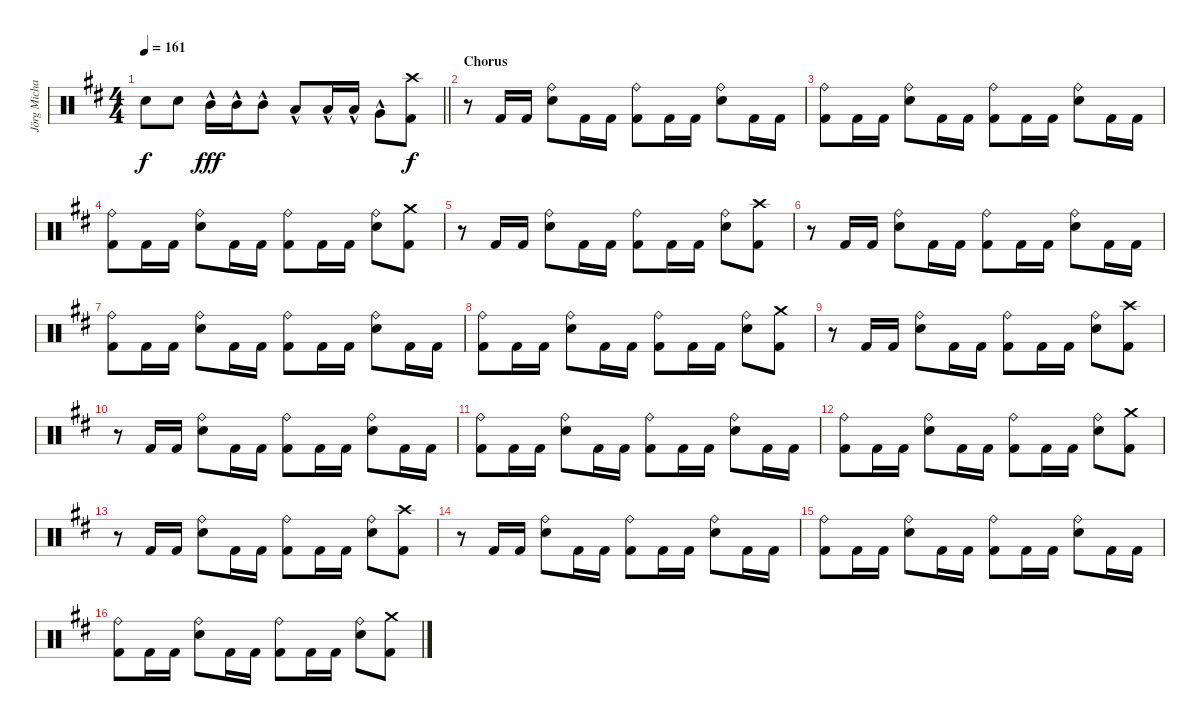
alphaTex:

\track ("Jörg Michael" "Jörg Micha") {instrument percussion}
\staff {score}
\articulation defaults
\ts (4 4)
\tempo 161
\clef neutral
\barLineRight lightlight
\ks bminor "Snare (hit) 2".8{dy f} "Snare (hit) 2".8 "Mid Tom (hit)"{hac}.16{dy fff} "Mid Tom (hit)"{hac}.16 "Mid Tom (hit)"{hac}.8 "Low Tom (hit)"{hac}.8 "Low Tom (hit)"{hac}.16 "Low Tom (hit)"{hac}.16 "Very Low Tom (hit)"{hac}.8
("Crash high (hit)" "Kick (hit) 2").8{dy f} |
\section ("" "Chorus")
r.8 "Kick (hit) 2".16 "Kick (hit) 2".16 ("Ride (bell)" "Snare (hit) 2").8 "Kick (hit) 2".16 "Kick (hit) 2".16 ("Ride (bell)" "Kick (hit) 2").8 "Kick (hit) 2".16 "Kick (hit) 2".16 ("Ride (bell)" "Snare (hit) 2").8 "Kick (hit) 2".16 "Kick (hit) 2".16 |
("Ride (bell)" "Kick (hit) 2").8 "Kick (hit) 2".16 "Kick (hit) 2".16 ("Ride (bell)" "Snare (hit) 2").8 "Kick (hit) 2".16 "Kick (hit) 2".16 ("Ride (bell)" "Kick (hit) 2").8 "Kick (hit) 2".16 "Kick (hit) 2".16 ("Ride (bell)" "Snare (hit) 2").8 "Kick (hit) 2".16 "Kick (hit) 2".16 |
("Ride (bell)" "Kick (hit) 2").8 "Kick (hit) 2".16 "Kick (hit) 2".16 ("Ride (bell)" "Snare (hit) 2").8 "Kick (hit) 2".16 "Kick (hit) 2".16 ("Ride (bell)" "Kick (hit) 2").8 "Kick (hit) 2".16 "Kick (hit) 2".16 ("Ride (bell)" "Snare (hit) 2").8 ("Crash medium (hit)" "Kick (hit) 2").8 |
r.8 "Kick (hit) 2".16 "Kick (hit) 2".16 ("Ride (bell)" "Snare (hit) 2").8 "Kick (hit) 2".16 "Kick (hit) 2".16 ("Ride (bell)" "Kick (hit) 2").8 "Kick (hit) 2".16 "Kick (hit) 2".16 ("Ride (bell)" "Snare (hit) 2").8 ("Crash high (hit)" "Kick (hit) 2").8 |
r.8 "Kick (hit) 2".16 "Kick (hit) 2".16 ("Ride (bell)" "Snare (hit) 2").8 "Kick (hit) 2".16 "Kick (hit) 2".16 ("Ride (bell)" "Kick (hit) 2").8 "Kick (hit) 2".16 "Kick (hit) 2".16 ("Ride (bell)" "Snare (hit) 2").8 "Kick (hit) 2".16 "Kick (hit) 2".16 |
("Ride (bell)" "Kick (hit) 2").8 "Kick (hit) 2".16 "Kick (hit) 2".16 ("Ride (bell)" "Snare (hit) 2").8 "Kick (hit) 2".16 "Kick (hit) 2".16 ("Ride (bell)" "Kick (hit) 2").8 "Kick (hit) 2".16 "Kick (hit) 2".16 ("Ride (bell)" "Snare (hit) 2").8 "Kick (hit) 2".16 "Kick (hit) 2".16 |
("Ride (bell)" "Kick (hit) 2").8 "Kick (hit) 2".16 "Kick (hit) 2".16 ("Ride (bell)" "Snare (hit) 2").8 "Kick (hit) 2".16 "Kick (hit) 2".16 ("Ride (bell)" "Kick (hit) 2").8 "Kick (hit) 2".16 "Kick (hit) 2".16 ("Ride (bell)" "Snare (hit) 2").8 ("Crash medium (hit)" "Kick (hit) 2").8 |
r.8 "Kick (hit) 2".16 "Kick (hit) 2".16 ("Ride (bell)" "Snare (hit) 2").8 "Kick (hit) 2".16 "Kick (hit) 2".16 ("Ride (bell)" "Kick (hit) 2").8 "Kick (hit) 2".16 "Kick (hit) 2".16 ("Ride (bell)" "Snare (hit) 2").8 ("Crash high (hit)" "Kick (hit) 2").8 |
r.8 "Kick (hit) 2".16 "Kick (hit) 2".16 ("Ride (bell)" "Snare (hit) 2").8 "Kick (hit) 2".16 "Kick (hit) 2".16 ("Ride (bell)" "Kick (hit) 2").8 "Kick (hit) 2".16 "Kick (hit) 2".16 ("Ride (bell)" "Snare (hit) 2").8 "Kick (hit) 2".16 "Kick (hit) 2".16 |
("Ride (bell)" "Kick (hit) 2").8 "Kick (hit) 2".16 "Kick (hit) 2".16 ("Ride (bell)" "Snare (hit) 2").8 "Kick (hit) 2".16 "Kick (hit) 2".16 ("Ride (bell)" "Kick (hit) 2").8 "Kick (hit) 2".16 "Kick (hit) 2".16 ("Ride (bell)" "Snare (hit) 2").8 "Kick (hit) 2".16 "Kick (hit) 2".16 |
("Ride (bell)" "Kick (hit) 2").8 "Kick (hit) 2".16 "Kick (hit) 2".16 ("Ride (bell)" "Snare (hit) 2").8 "Kick (hit) 2".16 "Kick (hit) 2".16 ("Ride (bell)" "Kick (hit) 2").8 "Kick (hit) 2".16 "Kick (hit) 2".16 ("Ride (bell)" "Snare (hit) 2").8 ("Crash medium (hit)" "Kick (hit) 2").8 |
r.8 "Kick (hit) 2".16 "Kick (hit) 2".16 ("Ride (bell)" "Snare (hit) 2").8 "Kick (hit) 2".16 "Kick (hit) 2".16 ("Ride (bell)" "Kick (hit) 2").8 "Kick (hit) 2".16 "Kick (hit) 2".16 ("Ride (bell)" "Snare (hit) 2").8 ("Crash high (hit)" "Kick (hit) 2").8 |
r.8 "Kick (hit) 2".16 "Kick (hit) 2".16 ("Ride (bell)" "Snare (hit) 2").8 "Kick (hit) 2".16 "Kick (hit) 2".16 ("Ride (bell)" "Kick (hit) 2").8 "Kick (hit) 2".16 "Kick (hit) 2".16 ("Ride (bell)" "Snare (hit) 2").8 "Kick (hit) 2".16 "Kick (hit) 2".16 |
("Ride (bell)" "Kick (hit) 2").8 "Kick (hit) 2".16 "Kick (hit) 2".16 ("Ride (bell)" "Snare (hit) 2").8 "Kick (hit) 2".16 "Kick (hit) 2".16 ("Ride (bell)" "Kick (hit) 2").8 "Kick (hit) 2".16 "Kick (hit) 2".16 ("Ride (bell)" "Snare (hit) 2").8 "Kick (hit) 2".16 "Kick (hit) 2".16 |
("Ride (bell)" "Kick (hit) 2").8 "Kick (hit) 2".16 "Kick (hit) 2".16 ("Ride (bell)" "Snare (hit) 2").8 "Kick (hit) 2".16 "Kick (hit) 2".16 ("Ride (bell)" "Kick (hit) 2").8 "Kick (hit) 2".16 "Kick (hit) 2".16 ("Ride (bell)" "Snare (hit) 2").8 ("Crash medium (hit)" "Kick (hit) 2").8
